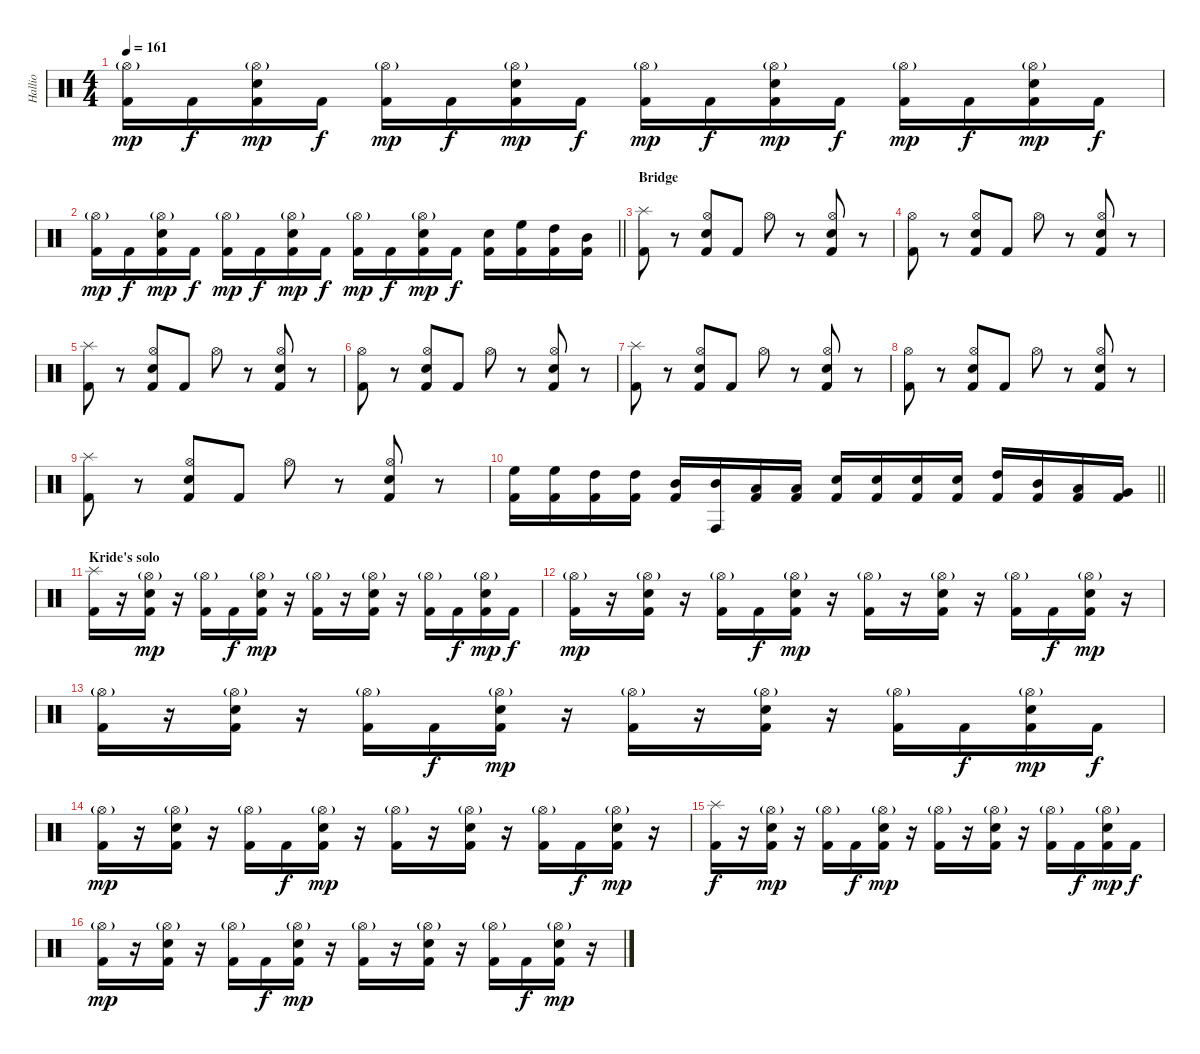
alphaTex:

\track ("Hallio" "Hallio") {instrument percussion}
\staff {score}
\articulation defaults
\ts (4 4)
\tempo 161
\clef neutral
\ks c
("Kick (hit) 2" "Hi-Hat (open)"{g}).16{dy mp} "Kick (hit) 2".16{dy f} ("Kick (hit) 2" "Snare (hit) 2" "Hi-Hat (open)"{g}).16{dy mp} "Kick (hit) 2".16{dy f} ("Kick (hit) 2" "Hi-Hat (open)"{g}).16{dy mp} "Kick (hit) 2".16{dy f} ("Kick (hit) 2" "Snare (hit) 2" "Hi-Hat (open)"{g}).16{dy mp} "Kick (hit) 2".16{dy f} ("Kick (hit) 2" "Hi-Hat (open)"{g}).16{dy mp} "Kick (hit) 2".16{dy f} ("Kick (hit) 2" "Snare (hit) 2" "Hi-Hat (open)"{g}).16{dy mp} "Kick (hit) 2".16{dy f} ("Kick (hit) 2" "Hi-Hat (open)"{g}).16{dy mp} "Kick (hit) 2".16{dy f} ("Kick (hit) 2" "Snare (hit) 2" "Hi-Hat (open)"{g}).16{dy mp} "Kick (hit) 2".16{dy f} |
\barLineRight lightlight
("Kick (hit) 2" "Hi-Hat (open)"{g}).16{dy mp} "Kick (hit) 2".16{dy f} ("Kick (hit) 2" "Snare (hit) 2" "Hi-Hat (open)"{g}).16{dy mp} "Kick (hit) 2".16{dy f} ("Kick (hit) 2" "Hi-Hat (open)"{g}).16{dy mp} "Kick (hit) 2".16{dy f} ("Kick (hit) 2" "Snare (hit) 2" "Hi-Hat (open)"{g}).16{dy mp} "Kick (hit) 2".16{dy f} ("Kick (hit) 2" "Hi-Hat (open)"{g}).16{dy mp} "Kick (hit) 2".16{dy f} ("Kick (hit) 2" "Snare (hit) 2" "Hi-Hat (open)"{g}).16{dy mp} "Kick (hit) 2".16{dy f} ("Kick (hit) 2" "Snare (hit) 2").16 ("Kick (hit) 2" "High Floor Tom (hit)").16 ("Kick (hit) 2" "High Tom (hit)").16 ("Kick (hit) 2" "Mid Tom (hit)").16 |
\section ("" "Bridge")
("Kick (hit) 2" "Splash (hit)").8 r.8 ("Kick (hit) 2" "Hi-Hat (open)" "Snare (hit) 2").8 "Kick (hit) 2".8 "Hi-Hat (open)".8 r.8 ("Kick (hit) 2" "Hi-Hat (open)" "Snare (hit) 2").8 r.8 |
("Kick (hit) 2" "Hi-Hat (open)").8 r.8 ("Kick (hit) 2" "Hi-Hat (open)" "Snare (hit) 2").8 "Kick (hit) 2".8 "Hi-Hat (open)".8 r.8 ("Kick (hit) 2" "Hi-Hat (open)" "Snare (hit) 2").8 r.8 |
("Kick (hit) 2" "Splash (hit)").8 r.8 ("Kick (hit) 2" "Hi-Hat (open)" "Snare (hit) 2").8 "Kick (hit) 2".8 "Hi-Hat (open)".8 r.8 ("Kick (hit) 2" "Hi-Hat (open)" "Snare (hit) 2").8 r.8 |
("Kick (hit) 2" "Hi-Hat (open)").8 r.8 ("Kick (hit) 2" "Hi-Hat (open)" "Snare (hit) 2").8 "Kick (hit) 2".8 "Hi-Hat (open)".8 r.8 ("Kick (hit) 2" "Hi-Hat (open)" "Snare (hit) 2").8 r.8 |
("Kick (hit) 2" "Splash (hit)").8 r.8 ("Kick (hit) 2" "Hi-Hat (open)" "Snare (hit) 2").8 "Kick (hit) 2".8 "Hi-Hat (open)".8 r.8 ("Kick (hit) 2" "Hi-Hat (open)" "Snare (hit) 2").8 r.8 |
("Kick (hit) 2" "Hi-Hat (open)").8 r.8 ("Kick (hit) 2" "Hi-Hat (open)" "Snare (hit) 2").8 "Kick (hit) 2".8 "Hi-Hat (open)".8 r.8 ("Kick (hit) 2" "Hi-Hat (open)" "Snare (hit) 2").8 r.8 |
("Kick (hit) 2" "Splash (hit)").8 r.8 ("Kick (hit) 2" "Hi-Hat (open)" "Snare (hit) 2").8 "Kick (hit) 2".8 "Hi-Hat (open)".8 r.8 ("Kick (hit) 2" "Hi-Hat (open)" "Snare (hit) 2").8 r.8 |
\barLineRight lightlight
("High Floor Tom (hit)" "Kick (hit) 2").16 ("High Floor Tom (hit)" "Kick (hit) 2").16 ("High Tom (hit)" "Kick (hit) 2").16 ("High Tom (hit)" "Kick (hit) 2").16 ("Mid Tom (hit)" "Kick (hit) 2").16 ("Mid Tom (hit)" "Conga high (hit)").16 ("Low Tom (hit)" "Kick (hit) 2").16 ("Low Tom (hit)" "Kick (hit) 2").16 ("Snare (hit) 2" "Kick (hit) 2").16 ("Snare (hit) 2" "Kick (hit) 2").16 ("Snare (hit) 2" "Kick (hit) 2").16 ("Snare (hit) 2" "Kick (hit) 2").16 ("High Tom (hit)" "Kick (hit) 2").16 ("Mid Tom (hit)" "Kick (hit) 2").16 ("Low Tom (hit)" "Kick (hit) 2").16 ("Very Low Tom (hit)" "Kick (hit) 2").16 |
\section ("" "Kride's solo")
("Kick (hit) 2" "Splash (hit)").16 r.16 ("Kick (hit) 2" "Snare (hit) 2" "Hi-Hat (open)"{g}).16{dy mp} r.16 ("Kick (hit) 2" "Hi-Hat (open)"{g}).16 "Kick (hit) 2".16{dy f} ("Kick (hit) 2" "Snare (hit) 2" "Hi-Hat (open)"{g}).16{dy mp} r.16 ("Kick (hit) 2" "Hi-Hat (open)"{g}).16 r.16 ("Kick (hit) 2" "Snare (hit) 2" "Hi-Hat (open)"{g}).16 r.16 ("Kick (hit) 2" "Hi-Hat (open)"{g}).16 "Kick (hit) 2".16{dy f} ("Kick (hit) 2" "Snare (hit) 2" "Hi-Hat (open)"{g}).16{dy mp} "Kick (hit) 2".16{dy f} |
("Kick (hit) 2" "Hi-Hat (open)"{g}).16{dy mp} r.16 ("Kick (hit) 2" "Snare (hit) 2" "Hi-Hat (open)"{g}).16 r.16 ("Kick (hit) 2" "Hi-Hat (open)"{g}).16 "Kick (hit) 2".16{dy f} ("Kick (hit) 2" "Snare (hit) 2" "Hi-Hat (open)"{g}).16{dy mp} r.16 ("Kick (hit) 2" "Hi-Hat (open)"{g}).16 r.16 ("Kick (hit) 2" "Snare (hit) 2" "Hi-Hat (open)"{g}).16 r.16 ("Kick (hit) 2" "Hi-Hat (open)"{g}).16 "Kick (hit) 2".16{dy f} ("Kick (hit) 2" "Snare (hit) 2" "Hi-Hat (open)"{g}).16{dy mp} r.16 |
("Kick (hit) 2" "Hi-Hat (open)"{g}).16 r.16 ("Kick (hit) 2" "Snare (hit) 2" "Hi-Hat (open)"{g}).16 r.16 ("Kick (hit) 2" "Hi-Hat (open)"{g}).16 "Kick (hit) 2".16{dy f} ("Kick (hit) 2" "Snare (hit) 2" "Hi-Hat (open)"{g}).16{dy mp} r.16 ("Kick (hit) 2" "Hi-Hat (open)"{g}).16 r.16 ("Kick (hit) 2" "Snare (hit) 2" "Hi-Hat (open)"{g}).16 r.16 ("Kick (hit) 2" "Hi-Hat (open)"{g}).16 "Kick (hit) 2".16{dy f} ("Kick (hit) 2" "Snare (hit) 2" "Hi-Hat (open)"{g}).16{dy mp} "Kick (hit) 2".16{dy f} |
("Kick (hit) 2" "Hi-Hat (open)"{g}).16{dy mp} r.16 ("Kick (hit) 2" "Snare (hit) 2" "Hi-Hat (open)"{g}).16 r.16 ("Kick (hit) 2" "Hi-Hat (open)"{g}).16 "Kick (hit) 2".16{dy f} ("Kick (hit) 2" "Snare (hit) 2" "Hi-Hat (open)"{g}).16{dy mp} r.16 ("Kick (hit) 2" "Hi-Hat (open)"{g}).16 r.16 ("Kick (hit) 2" "Snare (hit) 2" "Hi-Hat (open)"{g}).16 r.16 ("Kick (hit) 2" "Hi-Hat (open)"{g}).16 "Kick (hit) 2".16{dy f} ("Kick (hit) 2" "Snare (hit) 2" "Hi-Hat (open)"{g}).16{dy mp} r.16 |
("Kick (hit) 2" "Splash (hit)").16{dy f} r.16 ("Kick (hit) 2" "Snare (hit) 2" "Hi-Hat (open)"{g}).16{dy mp} r.16 ("Kick (hit) 2" "Hi-Hat (open)"{g}).16 "Kick (hit) 2".16{dy f} ("Kick (hit) 2" "Snare (hit) 2" "Hi-Hat (open)"{g}).16{dy mp} r.16 ("Kick (hit) 2" "Hi-Hat (open)"{g}).16 r.16 ("Kick (hit) 2" "Snare (hit) 2" "Hi-Hat (open)"{g}).16 r.16 ("Kick (hit) 2" "Hi-Hat (open)"{g}).16 "Kick (hit) 2".16{dy f} ("Kick (hit) 2" "Snare (hit) 2" "Hi-Hat (open)"{g}).16{dy mp} "Kick (hit) 2".16{dy f} |
("Kick (hit) 2" "Hi-Hat (open)"{g}).16{dy mp} r.16 ("Kick (hit) 2" "Snare (hit) 2" "Hi-Hat (open)"{g}).16 r.16 ("Kick (hit) 2" "Hi-Hat (open)"{g}).16 "Kick (hit) 2".16{dy f} ("Kick (hit) 2" "Snare (hit) 2" "Hi-Hat (open)"{g}).16{dy mp} r.16 ("Kick (hit) 2" "Hi-Hat (open)"{g}).16 r.16 ("Kick (hit) 2" "Snare (hit) 2" "Hi-Hat (open)"{g}).16 r.16 ("Kick (hit) 2" "Hi-Hat (open)"{g}).16 "Kick (hit) 2".16{dy f} ("Kick (hit) 2" "Snare (hit) 2" "Hi-Hat (open)"{g}).16{dy mp} r.16
